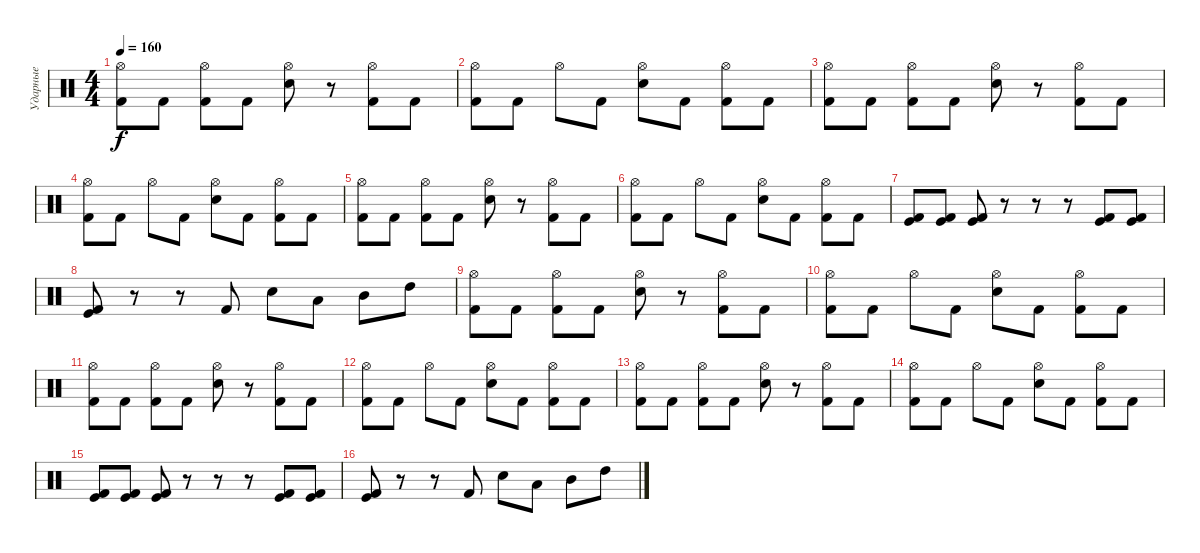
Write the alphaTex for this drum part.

\track ("Ударные" "Ударные") {instrument percussion}
\staff {score}
\articulation defaults
\ts (4 4)
\tempo 160
\clef neutral
\ks c
("Hi-Hat (open)" "Kick (hit) 2").8{dy f} "Kick (hit) 2".8 ("Hi-Hat (open)" "Kick (hit) 2").8 "Kick (hit) 2".8 ("Hi-Hat (open)" "Electric Snare (hit)").8 r.8 ("Hi-Hat (open)" "Kick (hit) 2").8 "Kick (hit) 2".8 |
("Hi-Hat (open)" "Kick (hit) 2").8 "Kick (hit) 2".8 "Hi-Hat (open)".8 "Kick (hit) 2".8 ("Hi-Hat (open)" "Electric Snare (hit)").8 "Kick (hit) 2".8 ("Hi-Hat (open)" "Kick (hit) 2").8 "Kick (hit) 2".8 |
("Hi-Hat (open)" "Kick (hit) 2").8 "Kick (hit) 2".8 ("Hi-Hat (open)" "Kick (hit) 2").8 "Kick (hit) 2".8 ("Hi-Hat (open)" "Electric Snare (hit)").8 r.8 ("Hi-Hat (open)" "Kick (hit) 2").8 "Kick (hit) 2".8 |
("Hi-Hat (open)" "Kick (hit) 2").8 "Kick (hit) 2".8 "Hi-Hat (open)".8 "Kick (hit) 2".8 ("Hi-Hat (open)" "Electric Snare (hit)").8 "Kick (hit) 2".8 ("Hi-Hat (open)" "Kick (hit) 2").8 "Kick (hit) 2".8 |
("Hi-Hat (open)" "Kick (hit) 2").8 "Kick (hit) 2".8 ("Hi-Hat (open)" "Kick (hit) 2").8 "Kick (hit) 2".8 ("Hi-Hat (open)" "Electric Snare (hit)").8 r.8 ("Hi-Hat (open)" "Kick (hit) 2").8 "Kick (hit) 2".8 |
("Hi-Hat (open)" "Kick (hit) 2").8 "Kick (hit) 2".8 "Hi-Hat (open)".8 "Kick (hit) 2".8 ("Hi-Hat (open)" "Electric Snare (hit)").8 "Kick (hit) 2".8 ("Hi-Hat (open)" "Kick (hit) 2").8 "Kick (hit) 2".8 |
("Kick (hit) 2" "Kick (hit)").8 ("Kick (hit) 2" "Kick (hit)").8 ("Kick (hit) 2" "Kick (hit)").8 r.8 r.8 r.8 ("Kick (hit) 2" "Kick (hit)").8 ("Kick (hit) 2" "Kick (hit)").8 |
("Kick (hit) 2" "Kick (hit)").8 r.8 r.8 "Kick (hit) 2".8 "Electric Snare (hit)".8 "Low Tom (hit)".8 "Mid Tom (hit)".8 "High Tom (hit)".8 |
("Hi-Hat (open)" "Kick (hit) 2").8 "Kick (hit) 2".8 ("Hi-Hat (open)" "Kick (hit) 2").8 "Kick (hit) 2".8 ("Hi-Hat (open)" "Electric Snare (hit)").8 r.8 ("Hi-Hat (open)" "Kick (hit) 2").8 "Kick (hit) 2".8 |
("Hi-Hat (open)" "Kick (hit) 2").8 "Kick (hit) 2".8 "Hi-Hat (open)".8 "Kick (hit) 2".8 ("Hi-Hat (open)" "Electric Snare (hit)").8 "Kick (hit) 2".8 ("Hi-Hat (open)" "Kick (hit) 2").8 "Kick (hit) 2".8 |
("Hi-Hat (open)" "Kick (hit) 2").8 "Kick (hit) 2".8 ("Hi-Hat (open)" "Kick (hit) 2").8 "Kick (hit) 2".8 ("Hi-Hat (open)" "Electric Snare (hit)").8 r.8 ("Hi-Hat (open)" "Kick (hit) 2").8 "Kick (hit) 2".8 |
("Hi-Hat (open)" "Kick (hit) 2").8 "Kick (hit) 2".8 "Hi-Hat (open)".8 "Kick (hit) 2".8 ("Hi-Hat (open)" "Electric Snare (hit)").8 "Kick (hit) 2".8 ("Hi-Hat (open)" "Kick (hit) 2").8 "Kick (hit) 2".8 |
("Hi-Hat (open)" "Kick (hit) 2").8 "Kick (hit) 2".8 ("Hi-Hat (open)" "Kick (hit) 2").8 "Kick (hit) 2".8 ("Hi-Hat (open)" "Electric Snare (hit)").8 r.8 ("Hi-Hat (open)" "Kick (hit) 2").8 "Kick (hit) 2".8 |
("Hi-Hat (open)" "Kick (hit) 2").8 "Kick (hit) 2".8 "Hi-Hat (open)".8 "Kick (hit) 2".8 ("Hi-Hat (open)" "Electric Snare (hit)").8 "Kick (hit) 2".8 ("Hi-Hat (open)" "Kick (hit) 2").8 "Kick (hit) 2".8 |
("Kick (hit) 2" "Kick (hit)").8 ("Kick (hit) 2" "Kick (hit)").8 ("Kick (hit) 2" "Kick (hit)").8 r.8 r.8 r.8 ("Kick (hit) 2" "Kick (hit)").8 ("Kick (hit) 2" "Kick (hit)").8 |
("Kick (hit) 2" "Kick (hit)").8 r.8 r.8 "Kick (hit) 2".8 "Electric Snare (hit)".8 "Low Tom (hit)".8 "Mid Tom (hit)".8 "High Tom (hit)".8
